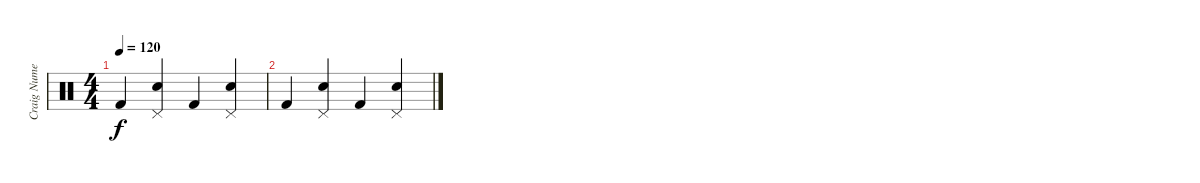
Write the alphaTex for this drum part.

\track ("Craig Numenbacher - Drums" "Craig Nume") {instrument percussion}
\staff {score}
\articulation defaults
\ts (4 4)
\tempo 120
\clef neutral
\ks c "Kick (hit) 2".4{dy f}
("Pedal Hi-Hat (hit)" "Snare (hit) 2").4 "Kick (hit) 2".4 ("Pedal Hi-Hat (hit)" "Snare (hit) 2").4 |
"Kick (hit) 2".4 ("Pedal Hi-Hat (hit)" "Snare (hit) 2").4 "Kick (hit) 2".4 ("Pedal Hi-Hat (hit)" "Snare (hit) 2").4
